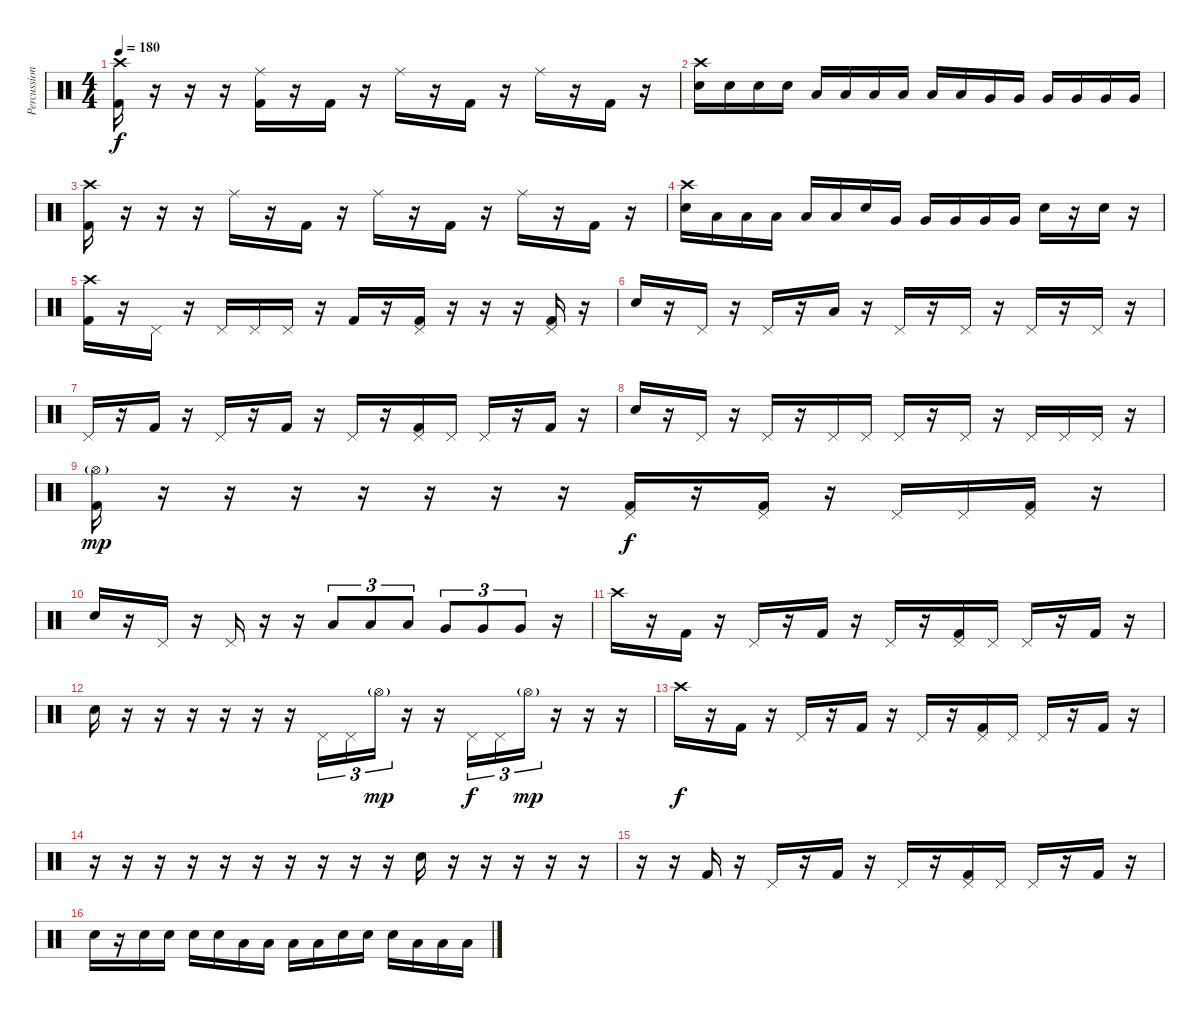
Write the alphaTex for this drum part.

\track ("Percussion" "Percussion") {instrument percussion}
\staff {score}
\articulation defaults
\ts (4 4)
\tempo 180
\clef neutral
\ks c
("Crash high (hit)" "Kick (hit) 2").16{dy f} r.16 r.16 r.16 ("Ride (middle)" "Kick (hit) 2").16 r.16 "Kick (hit) 2".16 r.16 "Ride (middle)".16 r.16 "Kick (hit) 2".16 r.16 "Ride (middle)".16 r.16 "Kick (hit) 2".16 r.16 |
("Crash high (hit)" "Electric Snare (hit)").16 "Electric Snare (hit)".16 "Electric Snare (hit)".16 "Electric Snare (hit)".16 "Low Tom (hit)".16 "Low Tom (hit)".16 "Low Tom (hit)".16 "Low Tom (hit)".16 "Low Tom (hit)".16 "Low Tom (hit)".16 "Very Low Tom (hit)".16 "Very Low Tom (hit)".16 "Very Low Tom (hit)".16 "Very Low Tom (hit)".16 "Very Low Tom (hit)".16 "Very Low Tom (hit)".16 |
("Crash high (hit)" "Kick (hit) 2").16 r.16 r.16 r.16 "Ride (middle)".16 r.16 "Kick (hit) 2".16 r.16 "Ride (middle)".16 r.16 "Kick (hit) 2".16 r.16 "Ride (middle)".16 r.16 "Kick (hit) 2".16 r.16 |
("Crash high (hit)" "Electric Snare (hit)").16 "Low Tom (hit)".16 "Low Tom (hit)".16 "Low Tom (hit)".16 "Low Tom (hit)".16 "Low Tom (hit)".16 "Electric Snare (hit)".16 "Very Low Tom (hit)".16 "Very Low Tom (hit)".16 "Very Low Tom (hit)".16 "Very Low Tom (hit)".16 "Very Low Tom (hit)".16 "Electric Snare (hit)".16 r.16 "Electric Snare (hit)".16 r.16 |
("Crash high (hit)" "Kick (hit) 2").16 r.16 "Pedal Hi-Hat (hit)".16 r.16 "Pedal Hi-Hat (hit)".16 "Pedal Hi-Hat (hit)".16 "Pedal Hi-Hat (hit)".16 r.16 "Kick (hit) 2".16 r.16 ("Pedal Hi-Hat (hit)" "Kick (hit) 2").16 r.16 r.16 r.16 ("Pedal Hi-Hat (hit)" "Kick (hit) 2").16 r.16 |
"Electric Snare (hit)".16 r.16 "Pedal Hi-Hat (hit)".16 r.16 "Pedal Hi-Hat (hit)".16 r.16 "Low Tom (hit)".16 r.16 "Pedal Hi-Hat (hit)".16 r.16 "Pedal Hi-Hat (hit)".16 r.16 "Pedal Hi-Hat (hit)".16 r.16 "Pedal Hi-Hat (hit)".16 r.16 |
"Pedal Hi-Hat (hit)".16 r.16 "Kick (hit) 2".16 r.16 "Pedal Hi-Hat (hit)".16 r.16 "Kick (hit) 2".16 r.16 "Pedal Hi-Hat (hit)".16 r.16 ("Pedal Hi-Hat (hit)" "Kick (hit) 2").16 "Pedal Hi-Hat (hit)".16 "Pedal Hi-Hat (hit)".16 r.16 "Kick (hit) 2".16 r.16 |
"Electric Snare (hit)".16 r.16 "Pedal Hi-Hat (hit)".16 r.16 "Pedal Hi-Hat (hit)".16 r.16 "Pedal Hi-Hat (hit)".16 "Pedal Hi-Hat (hit)".16 "Pedal Hi-Hat (hit)".16 r.16 "Pedal Hi-Hat (hit)".16 r.16 "Pedal Hi-Hat (hit)".16 "Pedal Hi-Hat (hit)".16 "Pedal Hi-Hat (hit)".16 r.16 |
("Hi-Hat (open)"{g} "Kick (hit) 2").16{dy mp} r.16 r.16 r.16 r.16 r.16 r.16 r.16 ("Pedal Hi-Hat (hit)" "Kick (hit) 2").16{dy f} r.16 ("Pedal Hi-Hat (hit)" "Kick (hit) 2").16 r.16 "Pedal Hi-Hat (hit)".16 "Pedal Hi-Hat (hit)".16 ("Pedal Hi-Hat (hit)" "Kick (hit) 2").16 r.16 |
"Electric Snare (hit)".16 r.16 "Pedal Hi-Hat (hit)".16 r.16 "Pedal Hi-Hat (hit)".16 r.16 r.16 "Low Tom (hit)".8{tu (3 2)} "Low Tom (hit)".8{tu (3 2)} "Low Tom (hit)".8{tu (3 2)} "Very Low Tom (hit)".8{tu (3 2)} "Very Low Tom (hit)".8{tu (3 2)} "Very Low Tom (hit)".8{tu (3 2)} r.16 |
"Crash high (hit)".16 r.16 "Kick (hit) 2".16 r.16 "Pedal Hi-Hat (hit)".16 r.16 "Kick (hit) 2".16 r.16 "Pedal Hi-Hat (hit)".16 r.16 ("Pedal Hi-Hat (hit)" "Kick (hit) 2").16 "Pedal Hi-Hat (hit)".16 "Pedal Hi-Hat (hit)".16 r.16 "Kick (hit) 2".16 r.16 |
"Electric Snare (hit)".16 r.16 r.16 r.16 r.16 r.16 r.16 "Pedal Hi-Hat (hit)".16{tu (3 2)} "Pedal Hi-Hat (hit)".16{tu (3 2)} "Hi-Hat (open)"{g}.16{tu (3 2) dy mp} r.16 r.16 "Pedal Hi-Hat (hit)".16{tu (3 2) dy f} "Pedal Hi-Hat (hit)".16{tu (3 2)} "Hi-Hat (open)"{g}.16{tu (3 2) dy mp} r.16 r.16 r.16 |
"Crash high (hit)".16{dy f} r.16 "Kick (hit) 2".16 r.16 "Pedal Hi-Hat (hit)".16 r.16 "Kick (hit) 2".16 r.16 "Pedal Hi-Hat (hit)".16 r.16 ("Pedal Hi-Hat (hit)" "Kick (hit) 2").16 "Pedal Hi-Hat (hit)".16 "Pedal Hi-Hat (hit)".16 r.16 "Kick (hit) 2".16 r.16 |
r.16 r.16 r.16 r.16 r.16 r.16 r.16 r.16 r.16 r.16 "Electric Snare (hit)".16 r.16 r.16 r.16 r.16 r.16 |
r.16 r.16 "Kick (hit) 2".16 r.16 "Pedal Hi-Hat (hit)".16 r.16 "Kick (hit) 2".16 r.16 "Pedal Hi-Hat (hit)".16 r.16 ("Pedal Hi-Hat (hit)" "Kick (hit) 2").16 "Pedal Hi-Hat (hit)".16 "Pedal Hi-Hat (hit)".16 r.16 "Kick (hit) 2".16 r.16 |
"Electric Snare (hit)".16 r.16 "Electric Snare (hit)".16 "Electric Snare (hit)".16 "Electric Snare (hit)".16 "Electric Snare (hit)".16 "Low Tom (hit)".16 "Low Tom (hit)".16 "Low Tom (hit)".16 "Low Tom (hit)".16 "Electric Snare (hit)".16 "Electric Snare (hit)".16 "Electric Snare (hit)".16 "Low Tom (hit)".16 "Low Tom (hit)".16 "Low Tom (hit)".16
